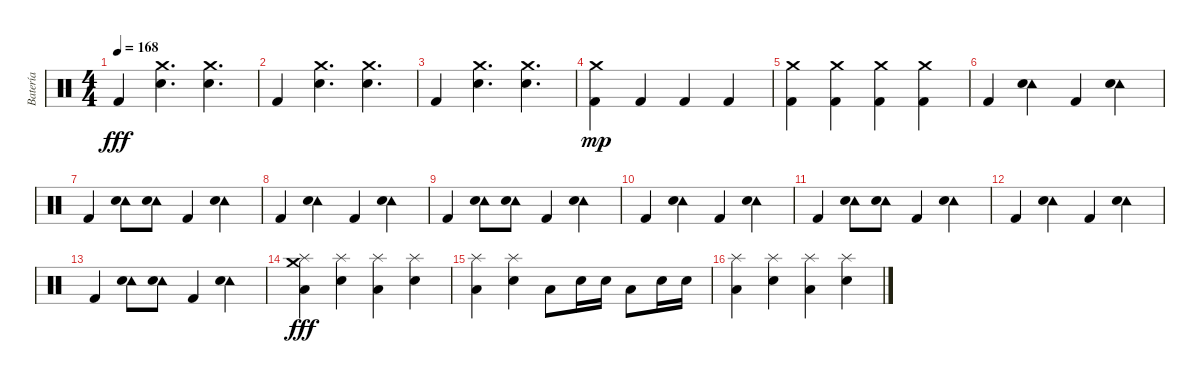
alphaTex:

\track ("Batería" "Batería") {instrument percussion}
\staff {score}
\articulation defaults
\ts (4 4)
\tempo 168
\clef neutral
\ks c "Kick (hit) 2".4{dy fff}
("Crash medium (hit)" "Electric Snare (hit)").4{d} ("Crash medium (hit)" "Electric Snare (hit)").4{d} |
"Kick (hit) 2".4 ("Crash medium (hit)" "Electric Snare (hit)").4{d} ("Crash medium (hit)" "Electric Snare (hit)").4{d} |
"Kick (hit) 2".4 ("Crash medium (hit)" "Electric Snare (hit)").4{d} ("Crash medium (hit)" "Electric Snare (hit)").4{d} |
("Crash medium (hit)" "Kick (hit) 2").4{dy mp} "Kick (hit) 2".4 "Kick (hit) 2".4 "Kick (hit) 2".4 |
("Crash medium (hit)" "Kick (hit) 2").4 ("Crash medium (hit)" "Kick (hit) 2").4 ("Crash medium (hit)" "Kick (hit) 2").4 ("Crash medium (hit)" "Kick (hit) 2").4 |
"Kick (hit) 2".4 ("Tambourine (hit)" "Electric Snare (hit)").4 "Kick (hit) 2".4 ("Tambourine (hit)" "Electric Snare (hit)").4 |
"Kick (hit) 2".4 ("Tambourine (hit)" "Electric Snare (hit)").8 ("Tambourine (hit)" "Electric Snare (hit)").8 "Kick (hit) 2".4 ("Tambourine (hit)" "Electric Snare (hit)").4 |
"Kick (hit) 2".4 ("Tambourine (hit)" "Electric Snare (hit)").4 "Kick (hit) 2".4 ("Tambourine (hit)" "Electric Snare (hit)").4 |
"Kick (hit) 2".4 ("Tambourine (hit)" "Electric Snare (hit)").8 ("Tambourine (hit)" "Electric Snare (hit)").8 "Kick (hit) 2".4 ("Tambourine (hit)" "Electric Snare (hit)").4 |
"Kick (hit) 2".4 ("Tambourine (hit)" "Electric Snare (hit)").4 "Kick (hit) 2".4 ("Tambourine (hit)" "Electric Snare (hit)").4 |
"Kick (hit) 2".4 ("Tambourine (hit)" "Electric Snare (hit)").8 ("Tambourine (hit)" "Electric Snare (hit)").8 "Kick (hit) 2".4 ("Tambourine (hit)" "Electric Snare (hit)").4 |
"Kick (hit) 2".4 ("Tambourine (hit)" "Electric Snare (hit)").4 "Kick (hit) 2".4 ("Tambourine (hit)" "Electric Snare (hit)").4 |
"Kick (hit) 2".4 ("Tambourine (hit)" "Electric Snare (hit)").8 ("Tambourine (hit)" "Electric Snare (hit)").8 "Kick (hit) 2".4 ("Tambourine (hit)" "Electric Snare (hit)").4 |
("Crash medium (hit)" "Splash (hit)" "Low Floor Tom (hit)").4{dy fff} ("Splash (hit)" "Electric Snare (hit)").4 ("Splash (hit)" "Low Floor Tom (hit)").4 ("Splash (hit)" "Electric Snare (hit)").4 |
("Splash (hit)" "Low Floor Tom (hit)").4 ("Splash (hit)" "Electric Snare (hit)").4 "Low Floor Tom (hit)".8 "Electric Snare (hit)".16 "Electric Snare (hit)".16 "Low Floor Tom (hit)".8 "Electric Snare (hit)".16 "Electric Snare (hit)".16 |
("Splash (hit)" "Low Floor Tom (hit)").4 ("Splash (hit)" "Electric Snare (hit)").4 ("Splash (hit)" "Low Floor Tom (hit)").4 ("Splash (hit)" "Electric Snare (hit)").4
